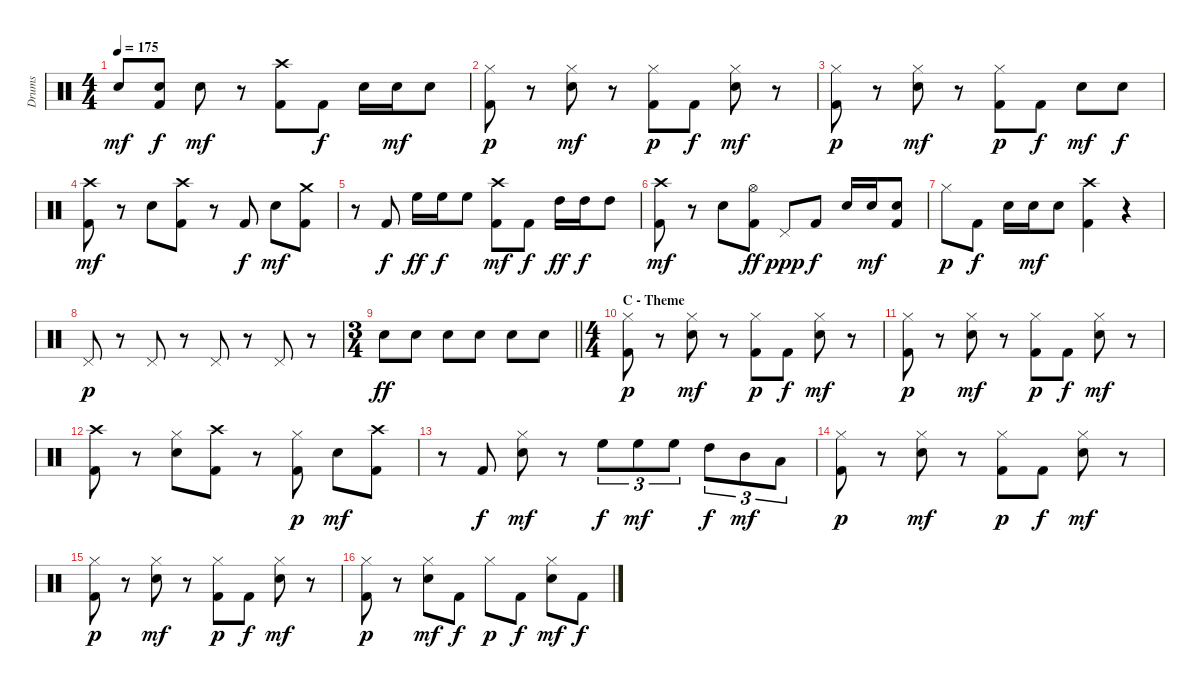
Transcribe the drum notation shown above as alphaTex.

\track ("Drums" "Drums") {instrument percussion}
\staff {score}
\articulation defaults
\ts (4 4)
\tempo 175
\clef neutral
\ks c "Electric Snare (hit)".8{dy mf}
("Electric Snare (hit)" "Kick (hit) 2").8{dy f} "Electric Snare (hit)".8{dy mf} r.8 ("Crash high (hit)" "Kick (hit) 2").8 "Kick (hit) 2".8{dy f} "Electric Snare (hit)".16 "Electric Snare (hit)".16{dy mf} "Electric Snare (hit)".8 |
("Hi-Hat (closed)" "Kick (hit) 2").8{dy p} r.8 ("Hi-Hat (closed)" "Electric Snare (hit)").8{dy mf} r.8 ("Hi-Hat (closed)" "Kick (hit) 2").8{dy p} "Kick (hit) 2".8{dy f} ("Hi-Hat (closed)" "Electric Snare (hit)").8{dy mf} r.8 |
("Hi-Hat (closed)" "Kick (hit) 2").8{dy p} r.8 ("Hi-Hat (closed)" "Electric Snare (hit)").8{dy mf} r.8 ("Hi-Hat (closed)" "Kick (hit) 2").8{dy p} "Kick (hit) 2".8{dy f} "Electric Snare (hit)".8{dy mf} "Electric Snare (hit)".8{dy f} |
("Crash high (hit)" "Kick (hit) 2").8{dy mf} r.8 "Electric Snare (hit)".8 ("Crash high (hit)" "Kick (hit) 2").8 r.8 "Kick (hit) 2".8{dy f} "Electric Snare (hit)".8{dy mf} ("Crash medium (hit)" "Kick (hit) 2").8 |
r.8 "Kick (hit) 2".8{dy f} "High Floor Tom (hit)".16{dy ff} "High Floor Tom (hit)".16{dy f} "High Floor Tom (hit)".8 ("Crash high (hit)" "Kick (hit) 2").8{dy mf} "Kick (hit) 2".8{dy f} "High Tom (hit)".16{dy ff} "High Tom (hit)".16{dy f} "High Tom (hit)".8 |
("Crash high (hit)" "Kick (hit) 2").8{dy mf} r.8 "Electric Snare (hit)".8 ("Hi-Hat (open)" "Kick (hit) 2").8{dy ff} "Pedal Hi-Hat (hit)".8{dy ppp} "Kick (hit) 2".8{dy f} "Electric Snare (hit)".16 "Electric Snare (hit)".16{dy mf} ("Electric Snare (hit)" "Kick (hit) 2").8 |
"Hi-Hat (closed)".8{dy p} "Kick (hit) 2".8{dy f} "Electric Snare (hit)".16 "Electric Snare (hit)".16{dy mf} "Electric Snare (hit)".8 ("Crash high (hit)" "Kick (hit) 2").4 r.4 |
"Pedal Hi-Hat (hit)".8{dy p} r.8 "Pedal Hi-Hat (hit)".8 r.8 "Pedal Hi-Hat (hit)".8 r.8 "Pedal Hi-Hat (hit)".8 r.8 |
\ts (3 4)
\barLineRight lightlight "Electric Snare (hit)".8{dy ff} "Electric Snare (hit)".8 "Electric Snare (hit)".8 "Electric Snare (hit)".8 "Electric Snare (hit)".8 "Electric Snare (hit)".8
|
\ts (4 4)
\section ("" "C - Theme")
("Hi-Hat (closed)" "Kick (hit) 2").8{dy p} r.8 ("Hi-Hat (closed)" "Electric Snare (hit)").8{dy mf} r.8 ("Hi-Hat (closed)" "Kick (hit) 2").8{dy p} "Kick (hit) 2".8{dy f} ("Hi-Hat (closed)" "Electric Snare (hit)").8{dy mf} r.8 |
("Hi-Hat (closed)" "Kick (hit) 2").8{dy p} r.8 ("Hi-Hat (closed)" "Electric Snare (hit)").8{dy mf} r.8 ("Hi-Hat (closed)" "Kick (hit) 2").8{dy p} "Kick (hit) 2".8{dy f} ("Hi-Hat (closed)" "Electric Snare (hit)").8{dy mf} r.8 |
("Crash high (hit)" "Kick (hit) 2").8 r.8 ("Hi-Hat (closed)" "Electric Snare (hit)").8 ("Crash high (hit)" "Kick (hit) 2").8 r.8 ("Hi-Hat (closed)" "Kick (hit) 2").8{dy p} "Electric Snare (hit)".8{dy mf} ("Crash high (hit)" "Kick (hit) 2").8 |
r.8 "Kick (hit) 2".8{dy f} ("Hi-Hat (closed)" "Electric Snare (hit)").8{dy mf} r.8 "High Floor Tom (hit)".8{tu (3 2) dy f} "High Floor Tom (hit)".8{tu (3 2) dy mf} "High Floor Tom (hit)".8{tu (3 2)} "High Tom (hit)".8{tu (3 2) dy f} "Mid Tom (hit)".8{tu (3 2) dy mf} "Low Tom (hit)".8{tu (3 2)} |
("Hi-Hat (closed)" "Kick (hit) 2").8{dy p} r.8 ("Hi-Hat (closed)" "Electric Snare (hit)").8{dy mf} r.8 ("Hi-Hat (closed)" "Kick (hit) 2").8{dy p} "Kick (hit) 2".8{dy f} ("Hi-Hat (closed)" "Electric Snare (hit)").8{dy mf} r.8 |
("Hi-Hat (closed)" "Kick (hit) 2").8{dy p} r.8 ("Hi-Hat (closed)" "Electric Snare (hit)").8{dy mf} r.8 ("Hi-Hat (closed)" "Kick (hit) 2").8{dy p} "Kick (hit) 2".8{dy f} ("Hi-Hat (closed)" "Electric Snare (hit)").8{dy mf} r.8 |
("Hi-Hat (closed)" "Kick (hit) 2").8{dy p} r.8 ("Hi-Hat (closed)" "Electric Snare (hit)").8{dy mf} "Kick (hit) 2".8{dy f} "Hi-Hat (closed)".8{dy p} "Kick (hit) 2".8{dy f} ("Hi-Hat (closed)" "Electric Snare (hit)").8{dy mf} "Kick (hit) 2".8{dy f}
